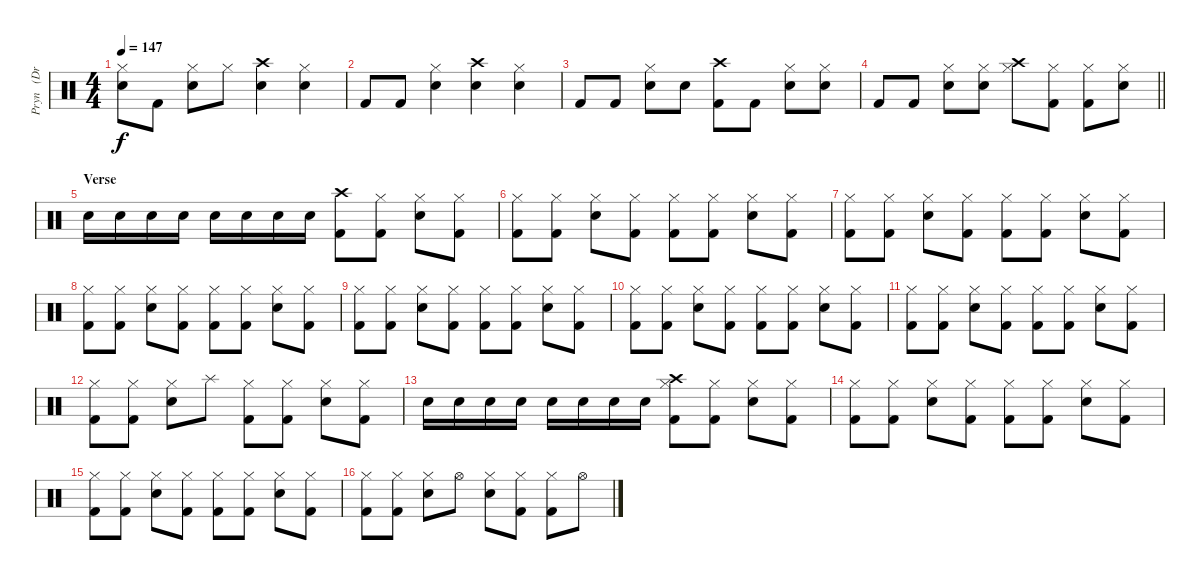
\track ("Pryn   (Drums)" "Pryn   (Dr") {instrument percussion}
\staff {score}
\articulation defaults
\ts (4 4)
\tempo 147
\clef neutral
\ks c
("Electric Snare (hit)" "Hi-Hat (closed)").8{dy f} "Kick (hit) 2".8 ("Electric Snare (hit)" "Hi-Hat (closed)").8 "Hi-Hat (closed)".8 ("Crash high (hit)" "Electric Snare (hit)").4 ("Electric Snare (hit)" "Hi-Hat (closed)").4 |
"Kick (hit) 2".8 "Kick (hit) 2".8 ("Electric Snare (hit)" "Hi-Hat (closed)").4 ("Crash high (hit)" "Electric Snare (hit)").4 ("Electric Snare (hit)" "Hi-Hat (closed)").4 |
"Kick (hit) 2".8 "Kick (hit) 2".8 ("Electric Snare (hit)" "Hi-Hat (closed)").8 "Electric Snare (hit)".8 ("Kick (hit) 2" "Crash high (hit)").8 "Kick (hit) 2".8 ("Electric Snare (hit)" "Hi-Hat (closed)").8 ("Hi-Hat (closed)" "Electric Snare (hit)").8 |
\barLineRight lightlight "Kick (hit) 2".8 "Kick (hit) 2".8
("Electric Snare (hit)" "Hi-Hat (closed)").8 ("Hi-Hat (closed)" "Electric Snare (hit)").8 ("Hi-Hat (closed)" "Crash high (hit)").8 ("Kick (hit) 2" "Hi-Hat (closed)").8 ("Kick (hit) 2" "Hi-Hat (closed)").8 ("Electric Snare (hit)" "Hi-Hat (closed)").8 |
\section ("" "Verse")
"Electric Snare (hit)".16 "Electric Snare (hit)".16 "Electric Snare (hit)".16 "Electric Snare (hit)".16 "Electric Snare (hit)".16 "Electric Snare (hit)".16 "Electric Snare (hit)".16 "Electric Snare (hit)".16 ("Crash high (hit)" "Kick (hit) 2").8 ("Kick (hit) 2" "Hi-Hat (closed)").8 ("Electric Snare (hit)" "Hi-Hat (closed)").8 ("Kick (hit) 2" "Hi-Hat (closed)").8 |
("Kick (hit) 2" "Hi-Hat (closed)").8 ("Kick (hit) 2" "Hi-Hat (closed)").8 ("Electric Snare (hit)" "Hi-Hat (closed)").8 ("Kick (hit) 2" "Hi-Hat (closed)").8 ("Hi-Hat (closed)" "Kick (hit) 2").8 ("Kick (hit) 2" "Hi-Hat (closed)").8 ("Electric Snare (hit)" "Hi-Hat (closed)").8 ("Kick (hit) 2" "Hi-Hat (closed)").8 |
("Kick (hit) 2" "Hi-Hat (closed)").8 ("Kick (hit) 2" "Hi-Hat (closed)").8 ("Electric Snare (hit)" "Hi-Hat (closed)").8 ("Kick (hit) 2" "Hi-Hat (closed)").8 ("Hi-Hat (closed)" "Kick (hit) 2").8 ("Kick (hit) 2" "Hi-Hat (closed)").8 ("Electric Snare (hit)" "Hi-Hat (closed)").8 ("Kick (hit) 2" "Hi-Hat (closed)").8 |
("Kick (hit) 2" "Hi-Hat (closed)").8 ("Kick (hit) 2" "Hi-Hat (closed)").8 ("Electric Snare (hit)" "Hi-Hat (closed)").8 ("Kick (hit) 2" "Hi-Hat (closed)").8 ("Hi-Hat (closed)" "Kick (hit) 2").8 ("Kick (hit) 2" "Hi-Hat (closed)").8 ("Electric Snare (hit)" "Hi-Hat (closed)").8 ("Kick (hit) 2" "Hi-Hat (closed)").8 |
("Kick (hit) 2" "Hi-Hat (closed)").8 ("Kick (hit) 2" "Hi-Hat (closed)").8 ("Electric Snare (hit)" "Hi-Hat (closed)").8 ("Kick (hit) 2" "Hi-Hat (closed)").8 ("Hi-Hat (closed)" "Kick (hit) 2").8 ("Kick (hit) 2" "Hi-Hat (closed)").8 ("Electric Snare (hit)" "Hi-Hat (closed)").8 ("Kick (hit) 2" "Hi-Hat (closed)").8 |
("Kick (hit) 2" "Hi-Hat (closed)").8 ("Kick (hit) 2" "Hi-Hat (closed)").8 ("Electric Snare (hit)" "Hi-Hat (closed)").8 ("Kick (hit) 2" "Hi-Hat (closed)").8 ("Hi-Hat (closed)" "Kick (hit) 2").8 ("Kick (hit) 2" "Hi-Hat (closed)").8 ("Electric Snare (hit)" "Hi-Hat (closed)").8 ("Kick (hit) 2" "Hi-Hat (closed)").8 |
("Kick (hit) 2" "Hi-Hat (closed)").8 ("Kick (hit) 2" "Hi-Hat (closed)").8 ("Electric Snare (hit)" "Hi-Hat (closed)").8 ("Kick (hit) 2" "Hi-Hat (closed)").8 ("Hi-Hat (closed)" "Kick (hit) 2").8 ("Kick (hit) 2" "Hi-Hat (closed)").8 ("Electric Snare (hit)" "Hi-Hat (closed)").8 ("Kick (hit) 2" "Hi-Hat (closed)").8 |
("Kick (hit) 2" "Hi-Hat (closed)").8 ("Kick (hit) 2" "Hi-Hat (closed)").8 ("Electric Snare (hit)" "Hi-Hat (closed)").8 "Splash (hit)".8 ("Kick (hit) 2" "Hi-Hat (closed)").8 ("Kick (hit) 2" "Hi-Hat (closed)").8 ("Electric Snare (hit)" "Hi-Hat (closed)").8 ("Kick (hit) 2" "Hi-Hat (closed)").8 |
"Electric Snare (hit)".16 "Electric Snare (hit)".16 "Electric Snare (hit)".16 "Electric Snare (hit)".16 "Electric Snare (hit)".16 "Electric Snare (hit)".16 "Electric Snare (hit)".16 "Electric Snare (hit)".16 ("Crash high (hit)" "Hi-Hat (closed)" "Kick (hit) 2").8 ("Kick (hit) 2" "Hi-Hat (closed)").8 ("Electric Snare (hit)" "Hi-Hat (closed)").8 ("Kick (hit) 2" "Hi-Hat (closed)").8 |
("Kick (hit) 2" "Hi-Hat (closed)").8 ("Kick (hit) 2" "Hi-Hat (closed)").8 ("Electric Snare (hit)" "Hi-Hat (closed)").8 ("Kick (hit) 2" "Hi-Hat (closed)").8 ("Hi-Hat (closed)" "Kick (hit) 2").8 ("Kick (hit) 2" "Hi-Hat (closed)").8 ("Electric Snare (hit)" "Hi-Hat (closed)").8 ("Kick (hit) 2" "Hi-Hat (closed)").8 |
("Kick (hit) 2" "Hi-Hat (closed)").8 ("Kick (hit) 2" "Hi-Hat (closed)").8 ("Electric Snare (hit)" "Hi-Hat (closed)").8 ("Kick (hit) 2" "Hi-Hat (closed)").8 ("Kick (hit) 2" "Hi-Hat (closed)").8 ("Kick (hit) 2" "Hi-Hat (closed)").8 ("Electric Snare (hit)" "Hi-Hat (closed)").8 ("Kick (hit) 2" "Hi-Hat (closed)").8 |
("Kick (hit) 2" "Hi-Hat (closed)").8 ("Kick (hit) 2" "Hi-Hat (closed)").8 ("Electric Snare (hit)" "Hi-Hat (closed)").8 "Hi-Hat (open)".8 ("Electric Snare (hit)" "Hi-Hat (closed)").8 ("Kick (hit) 2" "Hi-Hat (closed)").8 ("Kick (hit) 2" "Hi-Hat (closed)").8 "Hi-Hat (open)".8
